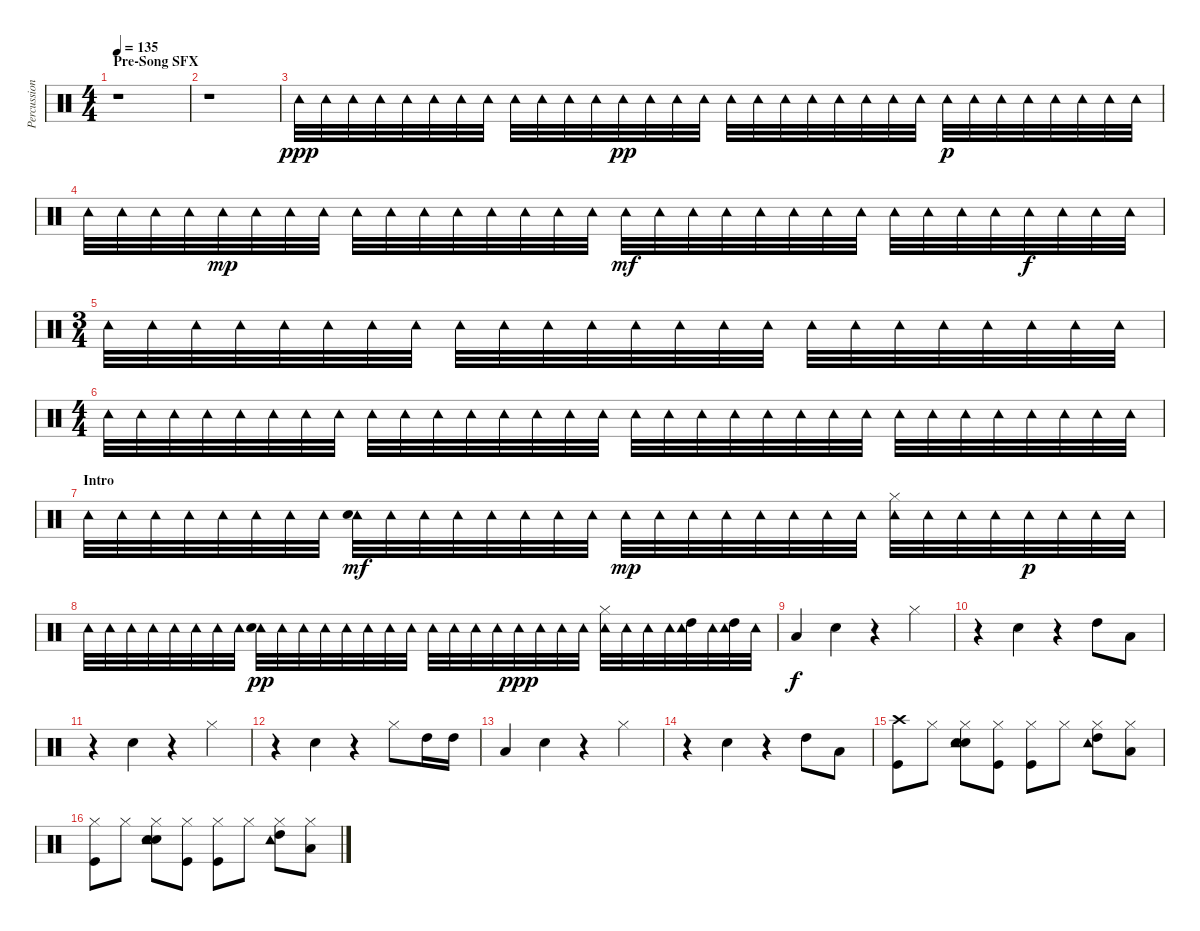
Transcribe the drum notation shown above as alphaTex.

\track ("Percussion" "Percussion") {instrument percussion}
\staff {score}
\articulation defaults
\ts (4 4)
\section ("" "Pre-Song SFX")
\tempo 135
\clef neutral
\ks c
r.1{dy ppp} |
r.1 |
"Tambourine (hit)".32 "Tambourine (hit)".32 "Tambourine (hit)".32 "Tambourine (hit)".32 "Tambourine (hit)".32 "Tambourine (hit)".32 "Tambourine (hit)".32 "Tambourine (hit)".32 "Tambourine (hit)".32 "Tambourine (hit)".32 "Tambourine (hit)".32 "Tambourine (hit)".32 "Tambourine (hit)".32{dy pp} "Tambourine (hit)".32 "Tambourine (hit)".32 "Tambourine (hit)".32 "Tambourine (hit)".32 "Tambourine (hit)".32 "Tambourine (hit)".32 "Tambourine (hit)".32 "Tambourine (hit)".32 "Tambourine (hit)".32 "Tambourine (hit)".32 "Tambourine (hit)".32 "Tambourine (hit)".32{dy p} "Tambourine (hit)".32 "Tambourine (hit)".32 "Tambourine (hit)".32 "Tambourine (hit)".32 "Tambourine (hit)".32 "Tambourine (hit)".32 "Tambourine (hit)".32 |
"Tambourine (hit)".32 "Tambourine (hit)".32 "Tambourine (hit)".32 "Tambourine (hit)".32 "Tambourine (hit)".32{dy mp} "Tambourine (hit)".32 "Tambourine (hit)".32 "Tambourine (hit)".32 "Tambourine (hit)".32 "Tambourine (hit)".32 "Tambourine (hit)".32 "Tambourine (hit)".32 "Tambourine (hit)".32 "Tambourine (hit)".32 "Tambourine (hit)".32 "Tambourine (hit)".32 "Tambourine (hit)".32{dy mf} "Tambourine (hit)".32 "Tambourine (hit)".32 "Tambourine (hit)".32 "Tambourine (hit)".32 "Tambourine (hit)".32 "Tambourine (hit)".32 "Tambourine (hit)".32 "Tambourine (hit)".32 "Tambourine (hit)".32 "Tambourine (hit)".32 "Tambourine (hit)".32 "Tambourine (hit)".32{dy f} "Tambourine (hit)".32 "Tambourine (hit)".32 "Tambourine (hit)".32 |
\ts (3 4)
"Tambourine (hit)".32 "Tambourine (hit)".32 "Tambourine (hit)".32 "Tambourine (hit)".32 "Tambourine (hit)".32 "Tambourine (hit)".32 "Tambourine (hit)".32 "Tambourine (hit)".32 "Tambourine (hit)".32 "Tambourine (hit)".32 "Tambourine (hit)".32 "Tambourine (hit)".32 "Tambourine (hit)".32 "Tambourine (hit)".32 "Tambourine (hit)".32 "Tambourine (hit)".32 "Tambourine (hit)".32 "Tambourine (hit)".32 "Tambourine (hit)".32 "Tambourine (hit)".32 "Tambourine (hit)".32 "Tambourine (hit)".32 "Tambourine (hit)".32 "Tambourine (hit)".32 |
\ts (4 4)
"Tambourine (hit)".32 "Tambourine (hit)".32 "Tambourine (hit)".32 "Tambourine (hit)".32 "Tambourine (hit)".32 "Tambourine (hit)".32 "Tambourine (hit)".32 "Tambourine (hit)".32 "Tambourine (hit)".32 "Tambourine (hit)".32 "Tambourine (hit)".32 "Tambourine (hit)".32 "Tambourine (hit)".32 "Tambourine (hit)".32 "Tambourine (hit)".32 "Tambourine (hit)".32 "Tambourine (hit)".32 "Tambourine (hit)".32 "Tambourine (hit)".32 "Tambourine (hit)".32 "Tambourine (hit)".32 "Tambourine (hit)".32 "Tambourine (hit)".32 "Tambourine (hit)".32 "Tambourine (hit)".32 "Tambourine (hit)".32 "Tambourine (hit)".32 "Tambourine (hit)".32 "Tambourine (hit)".32 "Tambourine (hit)".32 "Tambourine (hit)".32 "Tambourine (hit)".32 |
\section ("" "Intro")
"Tambourine (hit)".32 "Tambourine (hit)".32 "Tambourine (hit)".32 "Tambourine (hit)".32 "Tambourine (hit)".32 "Tambourine (hit)".32 "Tambourine (hit)".32 "Tambourine (hit)".32 ("Tambourine (hit)" "Hand Clap (hit)").32{dy mf} "Tambourine (hit)".32 "Tambourine (hit)".32 "Tambourine (hit)".32 "Tambourine (hit)".32 "Tambourine (hit)".32 "Tambourine (hit)".32 "Tambourine (hit)".32 "Tambourine (hit)".32{dy mp} "Tambourine (hit)".32 "Tambourine (hit)".32 "Tambourine (hit)".32 "Tambourine (hit)".32 "Tambourine (hit)".32 "Tambourine (hit)".32 "Tambourine (hit)".32 ("Tambourine (hit)" "Hi-Hat (closed)").32 "Tambourine (hit)".32 "Tambourine (hit)".32 "Tambourine (hit)".32 "Tambourine (hit)".32{dy p} "Tambourine (hit)".32 "Tambourine (hit)".32 "Tambourine (hit)".32 |
"Tambourine (hit)".32 "Tambourine (hit)".32 "Tambourine (hit)".32 "Tambourine (hit)".32 "Tambourine (hit)".32 "Tambourine (hit)".32 "Tambourine (hit)".32 "Tambourine (hit)".32 ("Tambourine (hit)" "Hand Clap (hit)").32{dy pp} "Tambourine (hit)".32 "Tambourine (hit)".32 "Tambourine (hit)".32 "Tambourine (hit)".32 "Tambourine (hit)".32 "Tambourine (hit)".32 "Tambourine (hit)".32 "Tambourine (hit)".32 "Tambourine (hit)".32 "Tambourine (hit)".32 "Tambourine (hit)".32 "Tambourine (hit)".32{dy ppp} "Tambourine (hit)".32 "Tambourine (hit)".32 "Tambourine (hit)".32 ("Tambourine (hit)" "Hi-Hat (closed)").32 "Tambourine (hit)".32 "Tambourine (hit)".32 "Tambourine (hit)".32 ("Tambourine (hit)" "High Tom (hit)").32 "Tambourine (hit)".32 ("Tambourine (hit)" "High Tom (hit)").32 "Tambourine (hit)".32 |
"Low Tom (hit)".4{dy f} "Hand Clap (hit)".4 r.4 "Hi-Hat (closed)".4 |
r.4 "Hand Clap (hit)".4 r.4 "High Tom (hit)".8 "Low Tom (hit)".8 |
r.4 "Hand Clap (hit)".4 r.4 "Hi-Hat (closed)".4 |
r.4 "Hand Clap (hit)".4 r.4 "Hi-Hat (closed)".8 "High Tom (hit)".16 "High Tom (hit)".16 |
"Low Tom (hit)".4 "Hand Clap (hit)".4 r.4 "Hi-Hat (closed)".4 |
r.4 "Hand Clap (hit)".4 r.4 "High Tom (hit)".8 "Low Tom (hit)".8 |
("Crash high (hit)" "Kick (hit)").8 "Hi-Hat (closed)".8 ("Hi-Hat (closed)" "Electric Snare (hit)" "Tambourine (hit)" "Hand Clap (hit)").8 ("Hi-Hat (closed)" "Kick (hit)").8 ("Hi-Hat (closed)" "Kick (hit)").8 "Hi-Hat (closed)".8 ("Hi-Hat (closed)" "High Tom (hit)" "Tambourine (hit)").8 ("Hi-Hat (closed)" "Low Tom (hit)").8 |
("Hi-Hat (closed)" "Kick (hit)").8 "Hi-Hat (closed)".8 ("Hi-Hat (closed)" "Electric Snare (hit)" "Tambourine (hit)" "Hand Clap (hit)").8 ("Hi-Hat (closed)" "Kick (hit)").8 ("Hi-Hat (closed)" "Kick (hit)").8 "Hi-Hat (closed)".8 ("Hi-Hat (closed)" "High Tom (hit)" "Tambourine (hit)").8 ("Hi-Hat (closed)" "Low Tom (hit)").8
